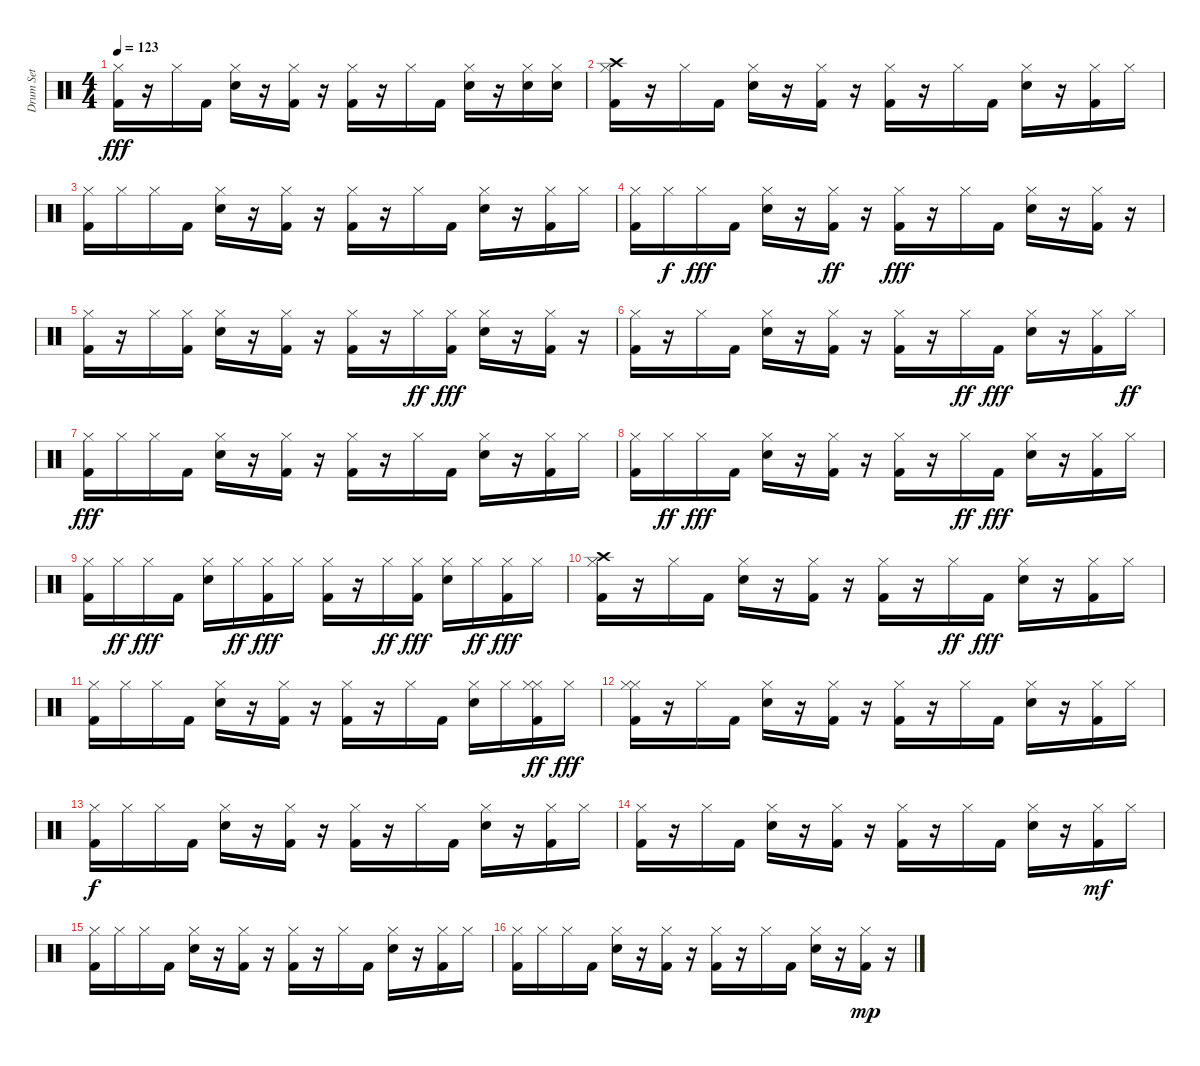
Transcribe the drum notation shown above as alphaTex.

\track ("Drum Set" "Drum Set") {instrument percussion}
\staff {score}
\articulation defaults
\ts (4 4)
\tempo 123
\clef neutral
\ks c
("Kick (hit) 2" "Hi-Hat (closed)").16{dy fff} r.16 "Hi-Hat (closed)".16 "Kick (hit) 2".16 ("Snare (hit) 2" "Hi-Hat (closed)").16 r.16 ("Kick (hit) 2" "Hi-Hat (closed)").16 r.16 ("Kick (hit) 2" "Hi-Hat (closed)").16 r.16 "Hi-Hat (closed)".16 "Kick (hit) 2".16 ("Snare (hit) 2" "Hi-Hat (closed)").16 r.16 ("Snare (hit) 2" "Hi-Hat (closed)").16 ("Hi-Hat (closed)" "Snare (hit) 2").16 |
("Hi-Hat (closed)" "Crash high (hit)" "Kick (hit) 2").16 r.16 "Hi-Hat (closed)".16 "Kick (hit) 2".16 ("Snare (hit) 2" "Hi-Hat (closed)").16 r.16 ("Kick (hit) 2" "Hi-Hat (closed)").16 r.16 ("Kick (hit) 2" "Hi-Hat (closed)").16 r.16 "Hi-Hat (closed)".16 "Kick (hit) 2".16 ("Snare (hit) 2" "Hi-Hat (closed)").16 r.16 ("Kick (hit) 2" "Hi-Hat (closed)").16 "Hi-Hat (closed)".16 |
("Hi-Hat (closed)" "Kick (hit) 2").16 "Hi-Hat (closed)".16 "Hi-Hat (closed)".16 "Kick (hit) 2".16 ("Snare (hit) 2" "Hi-Hat (closed)").16 r.16 ("Kick (hit) 2" "Hi-Hat (closed)").16 r.16 ("Hi-Hat (closed)" "Kick (hit) 2").16 r.16 "Hi-Hat (closed)".16 "Kick (hit) 2".16 ("Snare (hit) 2" "Hi-Hat (closed)").16 r.16 ("Kick (hit) 2" "Hi-Hat (closed)").16 "Hi-Hat (closed)".16 |
("Kick (hit) 2" "Hi-Hat (closed)").16 "Hi-Hat (closed)".16{dy f} "Hi-Hat (closed)".16{dy fff} "Kick (hit) 2".16 ("Snare (hit) 2" "Hi-Hat (closed)").16 r.16 ("Kick (hit) 2" "Hi-Hat (closed)").16{dy ff} r.16 ("Kick (hit) 2" "Hi-Hat (closed)").16{dy fff} r.16 "Hi-Hat (closed)".16 "Kick (hit) 2".16 ("Snare (hit) 2" "Hi-Hat (closed)").16 r.16 ("Hi-Hat (closed)" "Kick (hit) 2").16 r.16 |
("Kick (hit) 2" "Hi-Hat (closed)").16 r.16 "Hi-Hat (closed)".16 ("Hi-Hat (closed)" "Kick (hit) 2").16 ("Snare (hit) 2" "Hi-Hat (closed)").16 r.16 ("Kick (hit) 2" "Hi-Hat (closed)").16 r.16 ("Kick (hit) 2" "Hi-Hat (closed)").16 r.16 "Hi-Hat (closed)".16{dy ff} ("Kick (hit) 2" "Hi-Hat (closed)").16{dy fff} ("Snare (hit) 2" "Hi-Hat (closed)").16 r.16 ("Kick (hit) 2" "Hi-Hat (closed)").16 r.16 |
("Kick (hit) 2" "Hi-Hat (closed)").16 r.16 "Hi-Hat (closed)".16 "Kick (hit) 2".16 ("Snare (hit) 2" "Hi-Hat (closed)").16 r.16 ("Kick (hit) 2" "Hi-Hat (closed)").16 r.16 ("Kick (hit) 2" "Hi-Hat (closed)").16 r.16 "Hi-Hat (closed)".16{dy ff} "Kick (hit) 2".16{dy fff} ("Snare (hit) 2" "Hi-Hat (closed)").16 r.16 ("Kick (hit) 2" "Hi-Hat (closed)").16 "Hi-Hat (closed)".16{dy ff} |
("Hi-Hat (closed)" "Kick (hit) 2").16{dy fff} "Hi-Hat (closed)".16 "Hi-Hat (closed)".16 "Kick (hit) 2".16 ("Snare (hit) 2" "Hi-Hat (closed)").16 r.16 ("Kick (hit) 2" "Hi-Hat (closed)").16 r.16 ("Kick (hit) 2" "Hi-Hat (closed)").16 r.16 "Hi-Hat (closed)".16 "Kick (hit) 2".16 ("Snare (hit) 2" "Hi-Hat (closed)").16 r.16 ("Kick (hit) 2" "Hi-Hat (closed)").16 "Hi-Hat (closed)".16 |
("Kick (hit) 2" "Hi-Hat (closed)").16 "Hi-Hat (closed)".16{dy ff} "Hi-Hat (closed)".16{dy fff} "Kick (hit) 2".16 ("Hi-Hat (closed)" "Snare (hit) 2").16 r.16 ("Hi-Hat (closed)" "Kick (hit) 2").16 r.16 ("Kick (hit) 2" "Hi-Hat (closed)").16 r.16 "Hi-Hat (closed)".16{dy ff} "Kick (hit) 2".16{dy fff} ("Snare (hit) 2" "Hi-Hat (closed)").16 r.16 ("Kick (hit) 2" "Hi-Hat (closed)").16 "Hi-Hat (closed)".16 |
("Kick (hit) 2" "Hi-Hat (closed)").16 "Hi-Hat (closed)".16{dy ff} "Hi-Hat (closed)".16{dy fff} "Kick (hit) 2".16 ("Snare (hit) 2" "Hi-Hat (closed)").16 "Hi-Hat (closed)".16{dy ff} ("Kick (hit) 2" "Hi-Hat (closed)").16{dy fff} "Hi-Hat (closed)".16 ("Kick (hit) 2" "Hi-Hat (closed)").16 r.16 "Hi-Hat (closed)".16{dy ff} ("Kick (hit) 2" "Hi-Hat (closed)").16{dy fff} ("Snare (hit) 2" "Hi-Hat (closed)").16 "Hi-Hat (closed)".16{dy ff} ("Kick (hit) 2" "Hi-Hat (closed)").16{dy fff} "Hi-Hat (closed)".16 |
("Crash high (hit)" "Kick (hit) 2" "Hi-Hat (closed)").16 r.16 "Hi-Hat (closed)".16 "Kick (hit) 2".16 ("Snare (hit) 2" "Hi-Hat (closed)").16 r.16 ("Kick (hit) 2" "Hi-Hat (closed)").16 r.16 ("Kick (hit) 2" "Hi-Hat (closed)").16 r.16 "Hi-Hat (closed)".16{dy ff} "Kick (hit) 2".16{dy fff} ("Hi-Hat (closed)" "Snare (hit) 2").16 r.16 ("Hi-Hat (closed)" "Kick (hit) 2").16 "Hi-Hat (closed)".16 |
("Hi-Hat (closed)" "Kick (hit) 2").16 "Hi-Hat (closed)".16 "Hi-Hat (closed)".16 "Kick (hit) 2".16 ("Hi-Hat (closed)" "Snare (hit) 2").16 r.16 ("Hi-Hat (closed)" "Kick (hit) 2").16 r.16 ("Kick (hit) 2" "Hi-Hat (closed)").16 r.16 "Hi-Hat (closed)".16 "Kick (hit) 2".16 ("Snare (hit) 2" "Hi-Hat (closed)").16 "Hi-Hat (closed)".16 ("Hi-Hat (closed)" "Kick (hit) 2" "Hi-Hat (closed)").16{dy ff} "Hi-Hat (closed)".16{dy fff} |
("Hi-Hat (closed)" "Kick (hit) 2" "Hi-Hat (closed)").16 r.16 "Hi-Hat (closed)".16 "Kick (hit) 2".16 ("Snare (hit) 2" "Hi-Hat (closed)").16 r.16 ("Kick (hit) 2" "Hi-Hat (closed)").16 r.16 ("Kick (hit) 2" "Hi-Hat (closed)").16 r.16 "Hi-Hat (closed)".16 "Kick (hit) 2".16 ("Snare (hit) 2" "Hi-Hat (closed)").16 r.16 ("Kick (hit) 2" "Hi-Hat (closed)").16 "Hi-Hat (closed)".16 |
("Kick (hit) 2" "Hi-Hat (closed)").16{dy f} "Hi-Hat (closed)".16 "Hi-Hat (closed)".16 "Kick (hit) 2".16 ("Snare (hit) 2" "Hi-Hat (closed)").16 r.16 ("Kick (hit) 2" "Hi-Hat (closed)").16 r.16 ("Kick (hit) 2" "Hi-Hat (closed)").16 r.16 "Hi-Hat (closed)".16 "Kick (hit) 2".16 ("Snare (hit) 2" "Hi-Hat (closed)").16 r.16 ("Kick (hit) 2" "Hi-Hat (closed)").16 "Hi-Hat (closed)".16 |
("Kick (hit) 2" "Hi-Hat (closed)").16 r.16 "Hi-Hat (closed)".16 "Kick (hit) 2".16 ("Snare (hit) 2" "Hi-Hat (closed)").16 r.16 ("Kick (hit) 2" "Hi-Hat (closed)").16 r.16 ("Kick (hit) 2" "Hi-Hat (closed)").16 r.16 "Hi-Hat (closed)".16 "Kick (hit) 2".16 ("Snare (hit) 2" "Hi-Hat (closed)").16 r.16 ("Kick (hit) 2" "Hi-Hat (closed)").16{dy mf} "Hi-Hat (closed)".16 |
("Kick (hit) 2" "Hi-Hat (closed)").16 "Hi-Hat (closed)".16 "Hi-Hat (closed)".16 "Kick (hit) 2".16 ("Snare (hit) 2" "Hi-Hat (closed)").16 r.16 ("Hi-Hat (closed)" "Kick (hit) 2").16 r.16 ("Kick (hit) 2" "Hi-Hat (closed)").16 r.16 "Hi-Hat (closed)".16 "Kick (hit) 2".16 ("Snare (hit) 2" "Hi-Hat (closed)").16 r.16 ("Kick (hit) 2" "Hi-Hat (closed)").16 "Hi-Hat (closed)".16 |
("Kick (hit) 2" "Hi-Hat (closed)").16 "Hi-Hat (closed)".16 "Hi-Hat (closed)".16 "Kick (hit) 2".16 ("Snare (hit) 2" "Hi-Hat (closed)").16 r.16 ("Hi-Hat (closed)" "Kick (hit) 2").16 r.16 ("Kick (hit) 2" "Hi-Hat (closed)").16 r.16 "Hi-Hat (closed)".16 "Kick (hit) 2".16 ("Snare (hit) 2" "Hi-Hat (closed)").16 r.16 ("Kick (hit) 2" "Hi-Hat (closed)").16{dy mp} r.16
